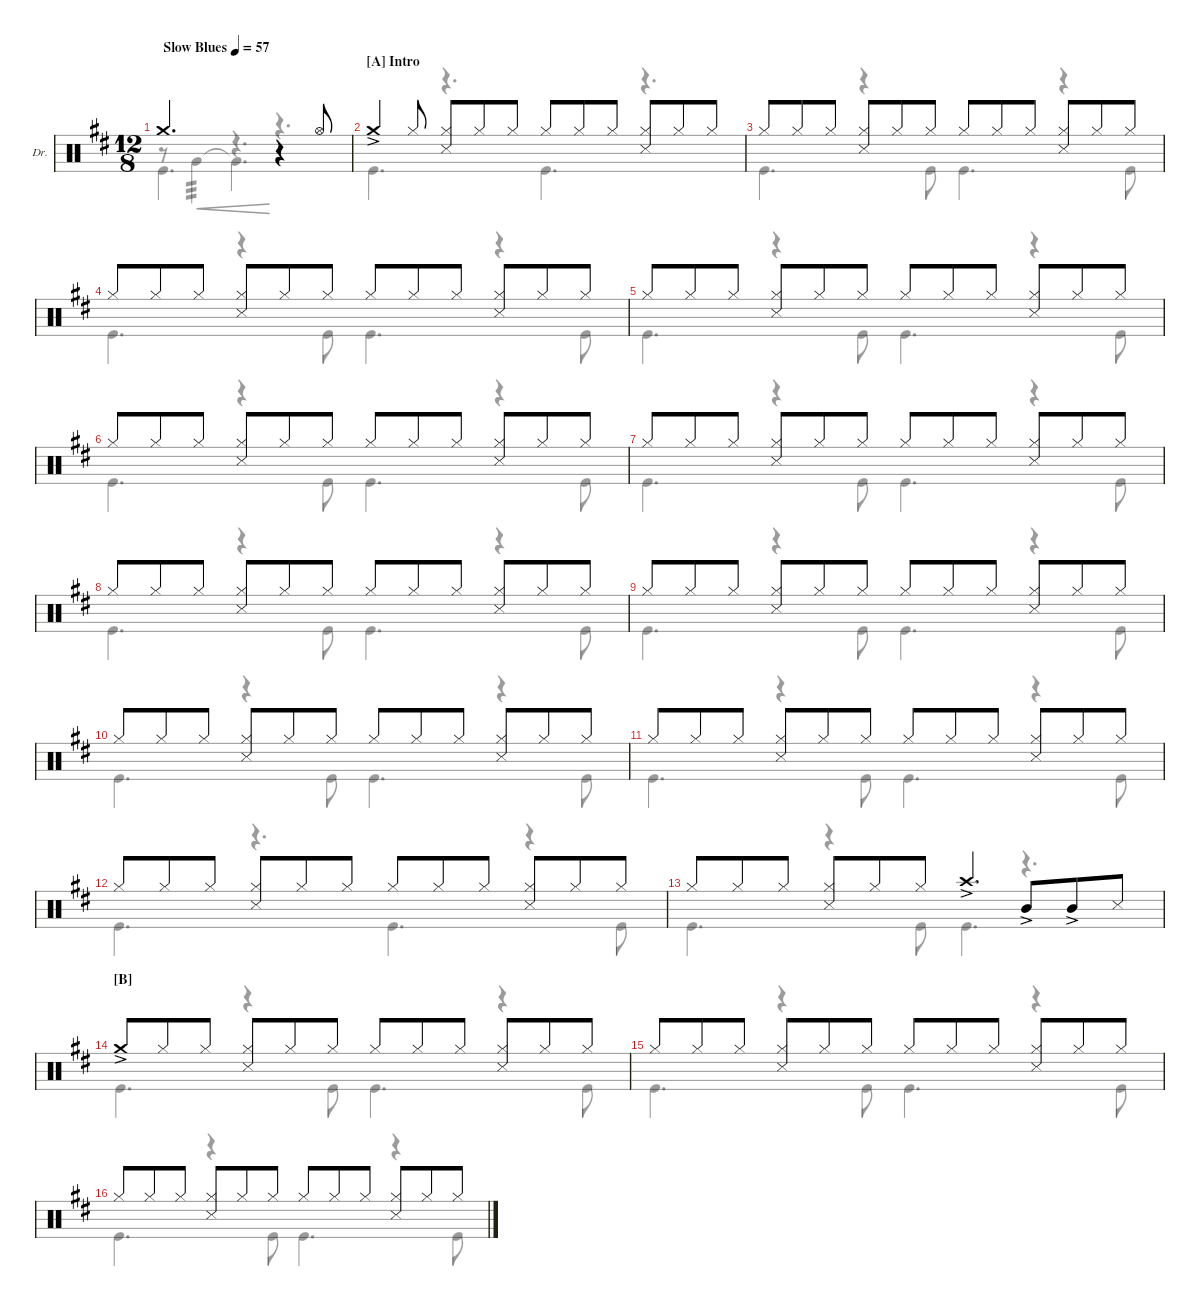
\defaultSystemsLayout 4
\hideDynamics
\bracketExtendMode groupsimilarinstruments
\firstSystemTrackNameOrientation horizontal
\otherSystemsTrackNameOrientation horizontal
\track ("Drums" "Dr.") {instrument percussion}
\staff {score}
\articulation defaults
\voice
\ts (12 8)
\ac
\tempo (57 "Slow Blues")
\clef neutral
\ks d "Crash medium (hit)".2{d dy p}
r.4 "Hi-Hat (open)".8{dy pp} |
\section ("A" "Intro")
"Crash medium (hit)"{ac}.4{dy p} "Hi-Hat (closed)".8 ("Hi-Hat (closed)" "Snare (side stick) 3").8 "Hi-Hat (closed)".8 "Hi-Hat (closed)".8 "Hi-Hat (closed)".8 "Hi-Hat (closed)".8 "Hi-Hat (closed)".8 ("Hi-Hat (closed)" "Snare (side stick) 3").8 "Hi-Hat (closed)".8 "Hi-Hat (closed)".8 |
"Hi-Hat (closed)".8 "Hi-Hat (closed)".8 "Hi-Hat (closed)".8 ("Hi-Hat (closed)" "Snare (side stick) 3").8 "Hi-Hat (closed)".8 "Hi-Hat (closed)".8 "Hi-Hat (closed)".8 "Hi-Hat (closed)".8 "Hi-Hat (closed)".8 ("Hi-Hat (closed)" "Snare (side stick) 3").8 "Hi-Hat (closed)".8 "Hi-Hat (closed)".8 |
"Hi-Hat (closed)".8 "Hi-Hat (closed)".8 "Hi-Hat (closed)".8 ("Hi-Hat (closed)" "Snare (side stick) 3").8 "Hi-Hat (closed)".8 "Hi-Hat (closed)".8 "Hi-Hat (closed)".8 "Hi-Hat (closed)".8 "Hi-Hat (closed)".8 ("Hi-Hat (closed)" "Snare (side stick) 3").8 "Hi-Hat (closed)".8 "Hi-Hat (closed)".8 |
"Hi-Hat (closed)".8 "Hi-Hat (closed)".8 "Hi-Hat (closed)".8 ("Hi-Hat (closed)" "Snare (side stick) 3").8 "Hi-Hat (closed)".8 "Hi-Hat (closed)".8 "Hi-Hat (closed)".8 "Hi-Hat (closed)".8 "Hi-Hat (closed)".8 ("Hi-Hat (closed)" "Snare (side stick) 3").8 "Hi-Hat (closed)".8 "Hi-Hat (closed)".8 |
"Hi-Hat (closed)".8 "Hi-Hat (closed)".8 "Hi-Hat (closed)".8 ("Hi-Hat (closed)" "Snare (side stick) 3").8 "Hi-Hat (closed)".8 "Hi-Hat (closed)".8 "Hi-Hat (closed)".8 "Hi-Hat (closed)".8 "Hi-Hat (closed)".8 ("Hi-Hat (closed)" "Snare (side stick) 3").8 "Hi-Hat (closed)".8 "Hi-Hat (closed)".8 |
"Hi-Hat (closed)".8 "Hi-Hat (closed)".8 "Hi-Hat (closed)".8 ("Hi-Hat (closed)" "Snare (side stick) 3").8 "Hi-Hat (closed)".8 "Hi-Hat (closed)".8 "Hi-Hat (closed)".8 "Hi-Hat (closed)".8 "Hi-Hat (closed)".8 ("Hi-Hat (closed)" "Snare (side stick) 3").8 "Hi-Hat (closed)".8 "Hi-Hat (closed)".8 |
"Hi-Hat (closed)".8 "Hi-Hat (closed)".8 "Hi-Hat (closed)".8 ("Hi-Hat (closed)" "Snare (side stick) 3").8 "Hi-Hat (closed)".8 "Hi-Hat (closed)".8 "Hi-Hat (closed)".8 "Hi-Hat (closed)".8 "Hi-Hat (closed)".8 ("Hi-Hat (closed)" "Snare (side stick) 3").8 "Hi-Hat (closed)".8 "Hi-Hat (closed)".8 |
"Hi-Hat (closed)".8 "Hi-Hat (closed)".8 "Hi-Hat (closed)".8 ("Hi-Hat (closed)" "Snare (side stick) 3").8 "Hi-Hat (closed)".8 "Hi-Hat (closed)".8 "Hi-Hat (closed)".8 "Hi-Hat (closed)".8 "Hi-Hat (closed)".8 ("Hi-Hat (closed)" "Snare (side stick) 3").8 "Hi-Hat (closed)".8 "Hi-Hat (closed)".8 |
"Hi-Hat (closed)".8 "Hi-Hat (closed)".8 "Hi-Hat (closed)".8 ("Hi-Hat (closed)" "Snare (side stick) 3").8 "Hi-Hat (closed)".8 "Hi-Hat (closed)".8 "Hi-Hat (closed)".8 "Hi-Hat (closed)".8 "Hi-Hat (closed)".8 ("Hi-Hat (closed)" "Snare (side stick) 3").8 "Hi-Hat (closed)".8 "Hi-Hat (closed)".8 |
"Hi-Hat (closed)".8 "Hi-Hat (closed)".8 "Hi-Hat (closed)".8 ("Hi-Hat (closed)" "Snare (side stick) 3").8 "Hi-Hat (closed)".8 "Hi-Hat (closed)".8 "Hi-Hat (closed)".8 "Hi-Hat (closed)".8 "Hi-Hat (closed)".8 ("Hi-Hat (closed)" "Snare (side stick) 3").8 "Hi-Hat (closed)".8 "Hi-Hat (closed)".8 |
"Hi-Hat (closed)".8 "Hi-Hat (closed)".8 "Hi-Hat (closed)".8 ("Hi-Hat (closed)" "Snare (side stick) 3").8 "Hi-Hat (closed)".8 "Hi-Hat (closed)".8 "Hi-Hat (closed)".8 "Hi-Hat (closed)".8 "Hi-Hat (closed)".8 ("Hi-Hat (closed)" "Snare (side stick) 3").8 "Hi-Hat (closed)".8 "Hi-Hat (closed)".8 |
"Hi-Hat (closed)".8 "Hi-Hat (closed)".8 "Hi-Hat (closed)".8 ("Hi-Hat (closed)" "Snare (side stick) 3").8 "Hi-Hat (closed)".8 "Hi-Hat (closed)".8 "Crash high (hit)"{ac}.4{d} "Mid Tom (hit)"{ac}.8 "Mid Tom (hit)"{ac}.8 "Snare (side stick) 3".8 |
\section ("B" "")
"Crash medium (hit)"{ac}.8 "Hi-Hat (closed)".8 "Hi-Hat (closed)".8 ("Hi-Hat (closed)" "Snare (side stick) 3").8 "Hi-Hat (closed)".8 "Hi-Hat (closed)".8 "Hi-Hat (closed)".8 "Hi-Hat (closed)".8 "Hi-Hat (closed)".8 ("Hi-Hat (closed)" "Snare (side stick) 3").8 "Hi-Hat (closed)".8 "Hi-Hat (closed)".8 |
"Hi-Hat (closed)".8 "Hi-Hat (closed)".8 "Hi-Hat (closed)".8 ("Hi-Hat (closed)" "Snare (side stick) 3").8 "Hi-Hat (closed)".8 "Hi-Hat (closed)".8 "Hi-Hat (closed)".8 "Hi-Hat (closed)".8 "Hi-Hat (closed)".8 ("Hi-Hat (closed)" "Snare (side stick) 3").8 "Hi-Hat (closed)".8 "Hi-Hat (closed)".8 |
"Hi-Hat (closed)".8 "Hi-Hat (closed)".8 "Hi-Hat (closed)".8 ("Hi-Hat (closed)" "Snare (side stick) 3").8 "Hi-Hat (closed)".8 "Hi-Hat (closed)".8 "Hi-Hat (closed)".8 "Hi-Hat (closed)".8 "Hi-Hat (closed)".8 ("Hi-Hat (closed)" "Snare (side stick) 3").8 "Hi-Hat (closed)".8 "Hi-Hat (closed)".8
\voice
\clef neutral
\ottava regular
\simile none
\ks d "Kick (hit)".4{d dy p}
r.4{d} r.4{d} |
"Kick (hit)".4{d} r.4{d} "Kick (hit)".4{d} r.4{d} |
"Kick (hit)".4{d} r.4 "Kick (hit)".8 "Kick (hit)".4{d} r.4 "Kick (hit)".8 |
"Kick (hit)".4{d} r.4 "Kick (hit)".8 "Kick (hit)".4{d} r.4 "Kick (hit)".8 |
"Kick (hit)".4{d} r.4 "Kick (hit)".8 "Kick (hit)".4{d} r.4 "Kick (hit)".8 |
"Kick (hit)".4{d} r.4 "Kick (hit)".8 "Kick (hit)".4{d} r.4 "Kick (hit)".8 |
"Kick (hit)".4{d} r.4 "Kick (hit)".8 "Kick (hit)".4{d} r.4 "Kick (hit)".8 |
"Kick (hit)".4{d} r.4 "Kick (hit)".8 "Kick (hit)".4{d} r.4 "Kick (hit)".8 |
"Kick (hit)".4{d} r.4 "Kick (hit)".8 "Kick (hit)".4{d} r.4 "Kick (hit)".8 |
"Kick (hit)".4{d} r.4 "Kick (hit)".8 "Kick (hit)".4{d} r.4 "Kick (hit)".8 |
"Kick (hit)".4{d} r.4 "Kick (hit)".8 "Kick (hit)".4{d} r.4 "Kick (hit)".8 |
"Kick (hit)".4{d} r.4{d} "Kick (hit)".4{d} r.4 "Kick (hit)".8 |
"Kick (hit)".4{d} r.4 "Kick (hit)".8 "Kick (hit)".4{d} r.4{d} |
"Kick (hit)".4{d} r.4 "Kick (hit)".8 "Kick (hit)".4{d} r.4 "Kick (hit)".8 |
"Kick (hit)".4{d} r.4 "Kick (hit)".8 "Kick (hit)".4{d} r.4 "Kick (hit)".8 |
"Kick (hit)".4{d} r.4 "Kick (hit)".8 "Kick (hit)".4{d} r.4 "Kick (hit)".8
\voice
\clef neutral
\ottava regular
\simile none
\ks d
r.8{dy p} "Very Low Tom (hit)".4{tp 3 cre} "Very Low Tom (hit)"{t}.4{d cre} r.4{d} |
|
|
|
|
|
|
|
|
|
|
|
|
|
|
